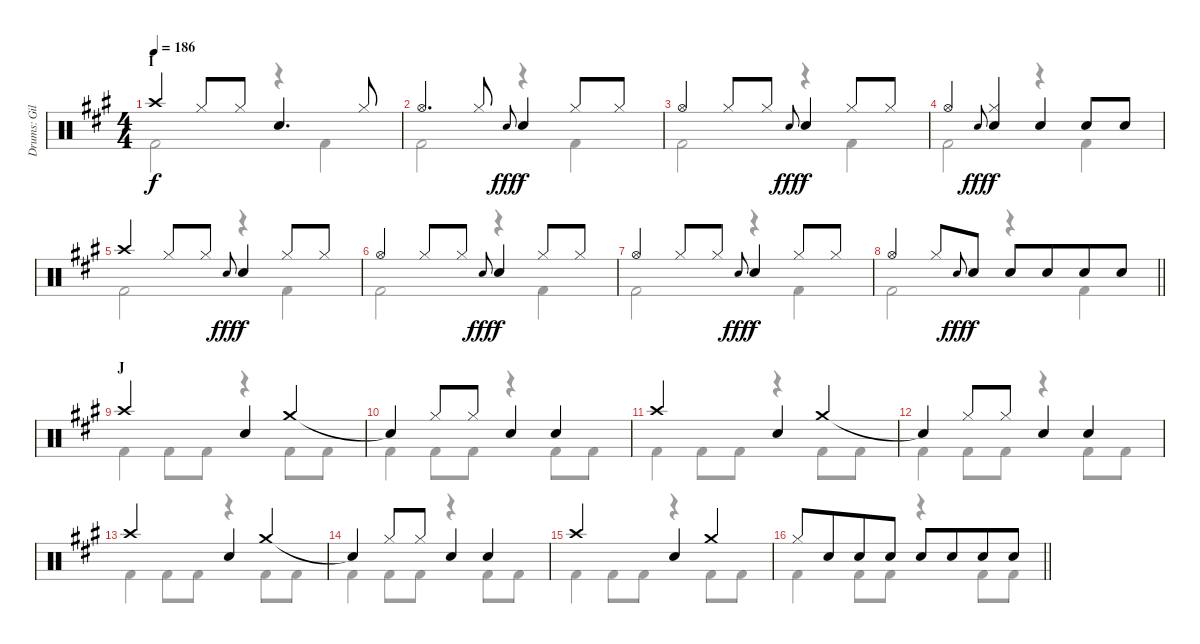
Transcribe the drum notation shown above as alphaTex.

\track ("Drums: Gil" "Drums: Gil") {instrument percussion}
\staff {score}
\articulation defaults
\voice
\ts (4 4)
\section ("" "I")
\tempo 186
\clef neutral
\ks a "Crash high (hit)".4{dy f} "Hi-Hat (closed)".8 "Hi-Hat (closed)".8 "Snare (hit) 2".4{d} "Hi-Hat (closed)".8
|
"Hi-Hat (open)".4{d} "Hi-Hat (closed)".8 "Electric Snare (hit)".8{gr onbeat dy fff} "Snare (hit) 2".4{dy f} "Hi-Hat (closed)".8 "Hi-Hat (closed)".8 |
"Hi-Hat (open)".4 "Hi-Hat (closed)".8 "Hi-Hat (closed)".8 "Electric Snare (hit)".8{gr onbeat dy fff} "Snare (hit) 2".4{dy f} "Hi-Hat (closed)".8 "Hi-Hat (closed)".8 |
"Hi-Hat (open)".4 "Electric Snare (hit)".8{gr onbeat dy fff} ("Hi-Hat (closed)" "Snare (hit) 2").4{dy f} "Snare (hit) 2".4 "Snare (hit) 2".8 "Snare (hit) 2".8 |
"Crash high (hit)".4 "Hi-Hat (closed)".8 "Hi-Hat (closed)".8 "Electric Snare (hit)".8{gr onbeat dy fff} "Snare (hit) 2".4{dy f} "Hi-Hat (closed)".8 "Hi-Hat (closed)".8 |
"Hi-Hat (open)".4 "Hi-Hat (closed)".8 "Hi-Hat (closed)".8 "Electric Snare (hit)".8{gr onbeat dy fff} "Snare (hit) 2".4{dy f} "Hi-Hat (closed)".8 "Hi-Hat (closed)".8 |
"Hi-Hat (open)".4 "Hi-Hat (closed)".8 "Hi-Hat (closed)".8 "Electric Snare (hit)".8{gr onbeat dy fff} "Snare (hit) 2".4{dy f} "Hi-Hat (closed)".8 "Hi-Hat (closed)".8 |
\barLineRight lightlight "Hi-Hat (open)".4 "Hi-Hat (closed)".8 "Electric Snare (hit)".8{gr onbeat dy fff} "Snare (hit) 2".8{dy f} "Snare (hit) 2".8 "Snare (hit) 2".8{beam merge} "Snare (hit) 2".8 "Snare (hit) 2".8
|
\section ("" "J")
"Crash high (hit)".2 "Snare (hit) 2".4 "Crash medium (hit)".4 |
"Snare (hit)"{t}.4 "Hi-Hat (closed)".8 "Hi-Hat (closed)".8 "Snare (hit) 2".4 "Snare (hit) 2".4 |
"Crash high (hit)".2 "Snare (hit) 2".4 "Crash medium (hit)".4 |
"Snare (hit)"{t}.4 "Hi-Hat (closed)".8 "Hi-Hat (closed)".8 "Snare (hit) 2".4 "Snare (hit) 2".4 |
"Crash high (hit)".2 "Snare (hit) 2".4 "Crash medium (hit)".4 |
"Snare (hit)"{t}.4 "Hi-Hat (closed)".8 "Hi-Hat (closed)".8 "Snare (hit) 2".4 "Snare (hit) 2".4 |
"Crash high (hit)".2 "Snare (hit) 2".4 "Crash medium (hit)".4 |
\barLineRight lightlight "Hi-Hat (closed)".8 "Snare (hit) 2".8{beam merge} "Snare (hit) 2".8 "Snare (hit) 2".8{beam split} "Snare (hit) 2".8 "Snare (hit) 2".8{beam merge} "Snare (hit) 2".8 "Snare (hit) 2".8
\voice
\clef neutral
\ottava regular
\simile none
\ks a "Kick (hit) 2".2{dy f}
r.4 "Kick (hit) 2".4 |
"Kick (hit) 2".2 r.4 "Kick (hit) 2".4 |
"Kick (hit) 2".2 r.4 "Kick (hit) 2".4 |
"Kick (hit) 2".2 r.4 "Kick (hit) 2".4 |
"Kick (hit) 2".2 r.4 "Kick (hit) 2".4 |
"Kick (hit) 2".2 r.4 "Kick (hit) 2".4 |
"Kick (hit) 2".2 r.4 "Kick (hit) 2".4 |
\barLineRight lightlight "Kick (hit) 2".2
r.4 "Kick (hit) 2".4 |
"Kick (hit) 2".4 "Kick (hit) 2".8 "Kick (hit) 2".8 r.4 "Kick (hit) 2".8 "Kick (hit) 2".8 |
"Kick (hit) 2".4 "Kick (hit) 2".8 "Kick (hit) 2".8 r.4 "Kick (hit) 2".8 "Kick (hit) 2".8 |
"Kick (hit) 2".4 "Kick (hit) 2".8 "Kick (hit) 2".8 r.4 "Kick (hit) 2".8 "Kick (hit) 2".8 |
"Kick (hit) 2".4 "Kick (hit) 2".8 "Kick (hit) 2".8 r.4 "Kick (hit) 2".8 "Kick (hit) 2".8 |
"Kick (hit) 2".4 "Kick (hit) 2".8 "Kick (hit) 2".8 r.4 "Kick (hit) 2".8 "Kick (hit) 2".8 |
"Kick (hit) 2".4 "Kick (hit) 2".8 "Kick (hit) 2".8 r.4 "Kick (hit) 2".8 "Kick (hit) 2".8 |
"Kick (hit) 2".4 "Kick (hit) 2".8 "Kick (hit) 2".8 r.4 "Kick (hit) 2".8 "Kick (hit) 2".8 |
\barLineRight lightlight "Kick (hit) 2".4 "Kick (hit) 2".8 "Kick (hit) 2".8
r.4 "Kick (hit) 2".8 "Kick (hit) 2".8
